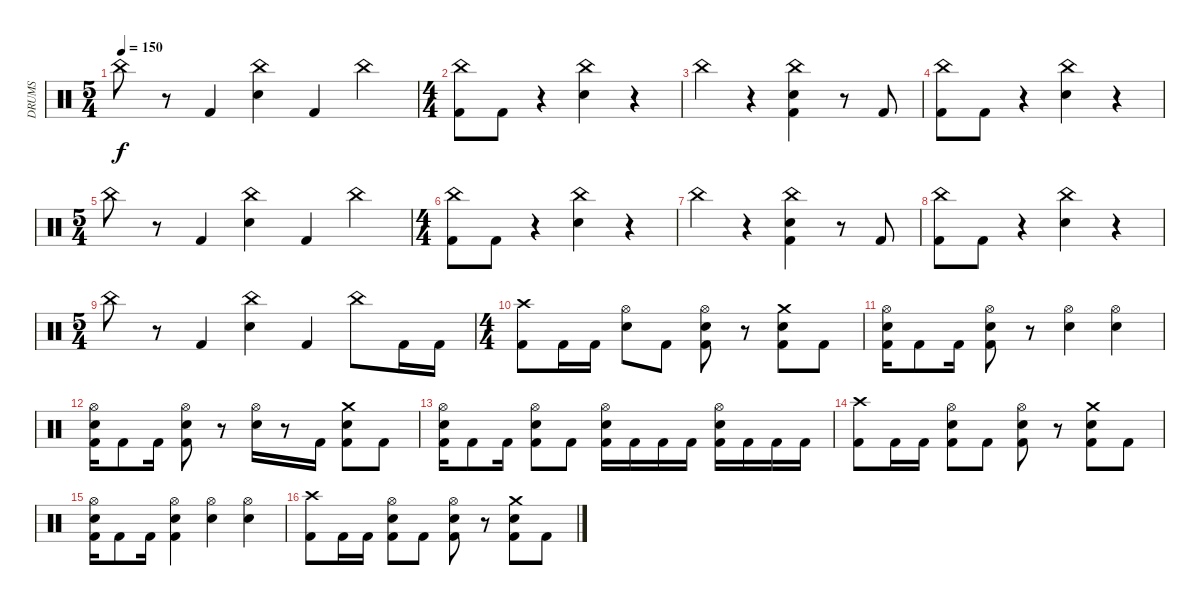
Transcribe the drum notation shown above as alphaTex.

\track ("DRUMS" "DRUMS") {instrument percussion}
\staff {score}
\articulation defaults
\ts (5 4)
\tempo 150
\clef neutral
\ks c "China (hit)".8{dy f}
r.8 "Kick (hit) 2".4 ("China (hit)" "Electric Snare (hit)").4 "Kick (hit) 2".4 "China (hit)".4 |
\ts (4 4)
("China (hit)" "Kick (hit) 2").8 "Kick (hit) 2".8 r.4 ("China (hit)" "Electric Snare (hit)").4 r.4 |
"China (hit)".4 r.4 ("China (hit)" "Electric Snare (hit)" "Kick (hit) 2").4 r.8 "Kick (hit) 2".8 |
("China (hit)" "Kick (hit) 2").8 "Kick (hit) 2".8 r.4 ("China (hit)" "Electric Snare (hit)").4 r.4 |
\ts (5 4)
"China (hit)".8 r.8 "Kick (hit) 2".4 ("China (hit)" "Electric Snare (hit)").4 "Kick (hit) 2".4 "China (hit)".4 |
\ts (4 4)
("China (hit)" "Kick (hit) 2").8 "Kick (hit) 2".8 r.4 ("China (hit)" "Electric Snare (hit)").4 r.4 |
"China (hit)".4 r.4 ("China (hit)" "Electric Snare (hit)" "Kick (hit) 2").4 r.8 "Kick (hit) 2".8 |
("China (hit)" "Kick (hit) 2").8 "Kick (hit) 2".8 r.4 ("China (hit)" "Electric Snare (hit)").4 r.4 |
\ts (5 4)
"China (hit)".8 r.8 "Kick (hit) 2".4 ("China (hit)" "Electric Snare (hit)").4 "Kick (hit) 2".4 "China (hit)".8 "Kick (hit) 2".16 "Kick (hit) 2".16 |
\ts (4 4)
("Crash high (hit)" "Kick (hit) 2").8 "Kick (hit) 2".16 "Kick (hit) 2".16 ("Hi-Hat (open)" "Electric Snare (hit)").8 "Kick (hit) 2".8 ("Hi-Hat (open)" "Electric Snare (hit)" "Kick (hit) 2").8 r.8 ("Crash medium (hit)" "Electric Snare (hit)" "Kick (hit) 2").8 "Kick (hit) 2".8 |
("Hi-Hat (open)" "Electric Snare (hit)" "Kick (hit) 2").16 "Kick (hit) 2".8 "Kick (hit) 2".16 ("Hi-Hat (open)" "Electric Snare (hit)" "Kick (hit) 2").8 r.8 ("Hi-Hat (open)" "Electric Snare (hit)").4 ("Hi-Hat (open)" "Electric Snare (hit)").4 |
("Hi-Hat (open)" "Electric Snare (hit)" "Kick (hit) 2").16 "Kick (hit) 2".8 "Kick (hit) 2".16 ("Hi-Hat (open)" "Electric Snare (hit)" "Kick (hit) 2").8 r.8 ("Hi-Hat (open)" "Electric Snare (hit)").16 r.8 "Kick (hit) 2".16 ("Crash medium (hit)" "Electric Snare (hit)" "Kick (hit) 2").8 "Kick (hit) 2".8 |
("Hi-Hat (open)" "Electric Snare (hit)" "Kick (hit) 2").16 "Kick (hit) 2".8 "Kick (hit) 2".16 ("Hi-Hat (open)" "Electric Snare (hit)" "Kick (hit) 2").8 "Kick (hit) 2".8 ("Hi-Hat (open)" "Electric Snare (hit)" "Kick (hit) 2").16 "Kick (hit) 2".16 "Kick (hit) 2".16 "Kick (hit) 2".16 ("Hi-Hat (open)" "Electric Snare (hit)" "Kick (hit) 2").16 "Kick (hit) 2".16 "Kick (hit) 2".16 "Kick (hit) 2".16 |
("Crash high (hit)" "Kick (hit) 2").8 "Kick (hit) 2".16 "Kick (hit) 2".16 ("Hi-Hat (open)" "Electric Snare (hit)" "Kick (hit) 2").8 "Kick (hit) 2".8 ("Hi-Hat (open)" "Electric Snare (hit)" "Kick (hit) 2").8 r.8 ("Crash medium (hit)" "Electric Snare (hit)" "Kick (hit) 2").8 "Kick (hit) 2".8 |
("Hi-Hat (open)" "Electric Snare (hit)" "Kick (hit) 2").16 "Kick (hit) 2".8 "Kick (hit) 2".16 ("Hi-Hat (open)" "Electric Snare (hit)" "Kick (hit) 2").4 ("Hi-Hat (open)" "Electric Snare (hit)").4 ("Hi-Hat (open)" "Electric Snare (hit)").4 |
("Crash high (hit)" "Kick (hit) 2").8 "Kick (hit) 2".16 "Kick (hit) 2".16 ("Hi-Hat (open)" "Electric Snare (hit)" "Kick (hit) 2").8 "Kick (hit) 2".8 ("Hi-Hat (open)" "Electric Snare (hit)" "Kick (hit) 2").8 r.8 ("Crash medium (hit)" "Electric Snare (hit)" "Kick (hit) 2").8 "Kick (hit) 2".8
